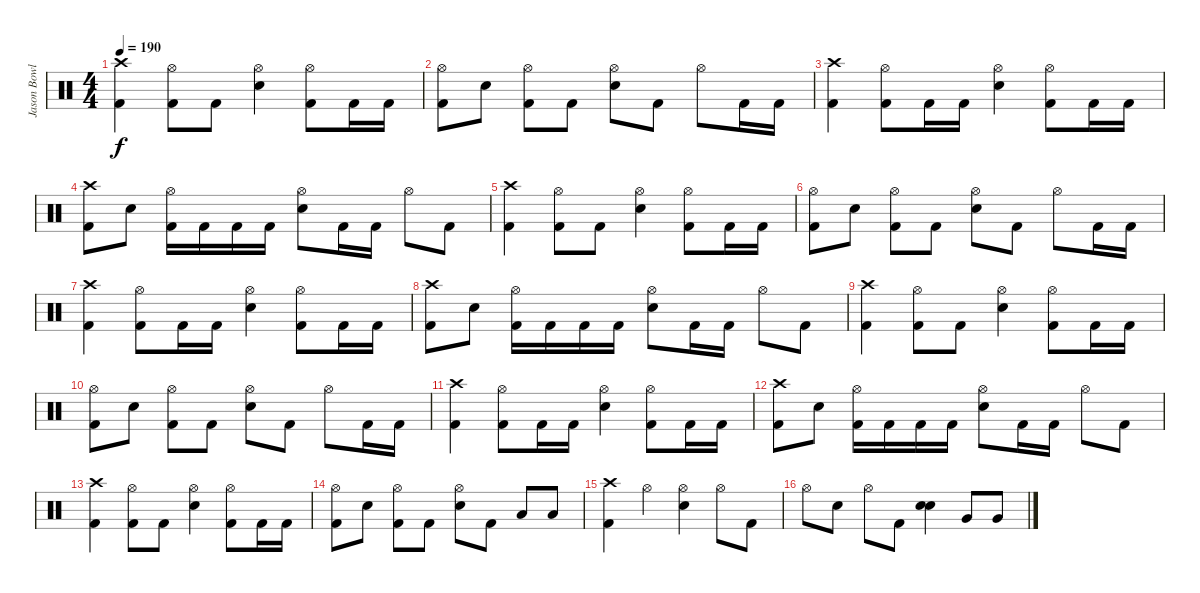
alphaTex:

\track ("Jason Bowld" "Jason Bowl") {instrument percussion}
\staff {score}
\articulation defaults
\ts (4 4)
\tempo 190
\clef neutral
\ks c
("Crash high (hit)" "Kick (hit) 2").4{dy f} ("Hi-Hat (open)" "Kick (hit) 2").8 "Kick (hit) 2".8 ("Hi-Hat (open)" "Snare (hit) 2").4 ("Hi-Hat (open)" "Kick (hit) 2").8 "Kick (hit) 2".16 "Kick (hit) 2".16 |
("Hi-Hat (open)" "Kick (hit) 2").8 "Snare (hit) 2".8 ("Hi-Hat (open)" "Kick (hit) 2").8 "Kick (hit) 2".8 ("Hi-Hat (open)" "Snare (hit) 2").8 "Kick (hit) 2".8 "Hi-Hat (open)".8 "Kick (hit) 2".16 "Kick (hit) 2".16 |
("Crash high (hit)" "Kick (hit) 2").4 ("Hi-Hat (open)" "Kick (hit) 2").8 "Kick (hit) 2".16 "Kick (hit) 2".16 ("Hi-Hat (open)" "Snare (hit) 2").4 ("Hi-Hat (open)" "Kick (hit) 2").8 "Kick (hit) 2".16 "Kick (hit) 2".16 |
("Crash high (hit)" "Kick (hit) 2").8 "Snare (hit) 2".8 ("Hi-Hat (open)" "Kick (hit) 2").16 "Kick (hit) 2".16 "Kick (hit) 2".16 "Kick (hit) 2".16 ("Hi-Hat (open)" "Snare (hit) 2").8 "Kick (hit) 2".16 "Kick (hit) 2".16 "Hi-Hat (open)".8 "Kick (hit) 2".8 |
("Crash high (hit)" "Kick (hit) 2").4 ("Hi-Hat (open)" "Kick (hit) 2").8 "Kick (hit) 2".8 ("Hi-Hat (open)" "Snare (hit) 2").4 ("Hi-Hat (open)" "Kick (hit) 2").8 "Kick (hit) 2".16 "Kick (hit) 2".16 |
("Hi-Hat (open)" "Kick (hit) 2").8 "Snare (hit) 2".8 ("Hi-Hat (open)" "Kick (hit) 2").8 "Kick (hit) 2".8 ("Hi-Hat (open)" "Snare (hit) 2").8 "Kick (hit) 2".8 "Hi-Hat (open)".8 "Kick (hit) 2".16 "Kick (hit) 2".16 |
("Crash high (hit)" "Kick (hit) 2").4 ("Hi-Hat (open)" "Kick (hit) 2").8 "Kick (hit) 2".16 "Kick (hit) 2".16 ("Hi-Hat (open)" "Snare (hit) 2").4 ("Hi-Hat (open)" "Kick (hit) 2").8 "Kick (hit) 2".16 "Kick (hit) 2".16 |
("Crash high (hit)" "Kick (hit) 2").8 "Snare (hit) 2".8 ("Hi-Hat (open)" "Kick (hit) 2").16 "Kick (hit) 2".16 "Kick (hit) 2".16 "Kick (hit) 2".16 ("Hi-Hat (open)" "Snare (hit) 2").8 "Kick (hit) 2".16 "Kick (hit) 2".16 "Hi-Hat (open)".8 "Kick (hit) 2".8 |
("Crash high (hit)" "Kick (hit) 2").4 ("Hi-Hat (open)" "Kick (hit) 2").8 "Kick (hit) 2".8 ("Hi-Hat (open)" "Snare (hit) 2").4 ("Hi-Hat (open)" "Kick (hit) 2").8 "Kick (hit) 2".16 "Kick (hit) 2".16 |
("Hi-Hat (open)" "Kick (hit) 2").8 "Snare (hit) 2".8 ("Hi-Hat (open)" "Kick (hit) 2").8 "Kick (hit) 2".8 ("Hi-Hat (open)" "Snare (hit) 2").8 "Kick (hit) 2".8 "Hi-Hat (open)".8 "Kick (hit) 2".16 "Kick (hit) 2".16 |
("Crash high (hit)" "Kick (hit) 2").4 ("Hi-Hat (open)" "Kick (hit) 2").8 "Kick (hit) 2".16 "Kick (hit) 2".16 ("Hi-Hat (open)" "Snare (hit) 2").4 ("Hi-Hat (open)" "Kick (hit) 2").8 "Kick (hit) 2".16 "Kick (hit) 2".16 |
("Crash high (hit)" "Kick (hit) 2").8 "Snare (hit) 2".8 ("Hi-Hat (open)" "Kick (hit) 2").16 "Kick (hit) 2".16 "Kick (hit) 2".16 "Kick (hit) 2".16 ("Hi-Hat (open)" "Snare (hit) 2").8 "Kick (hit) 2".16 "Kick (hit) 2".16 "Hi-Hat (open)".8 "Kick (hit) 2".8 |
("Crash high (hit)" "Kick (hit) 2").4 ("Hi-Hat (open)" "Kick (hit) 2").8 "Kick (hit) 2".8 ("Hi-Hat (open)" "Snare (hit) 2").4 ("Hi-Hat (open)" "Kick (hit) 2").8 "Kick (hit) 2".16 "Kick (hit) 2".16 |
("Hi-Hat (open)" "Kick (hit) 2").8 "Snare (hit) 2".8 ("Hi-Hat (open)" "Kick (hit) 2").8 "Kick (hit) 2".8 ("Hi-Hat (open)" "Snare (hit) 2").8 "Kick (hit) 2".8 "Low Tom (hit)".8 "Low Tom (hit)".8 |
("Crash high (hit)" "Kick (hit) 2").4 "Hi-Hat (open)".4 ("Hi-Hat (open)" "Snare (hit) 2").4 "Hi-Hat (open)".8 "Kick (hit) 2".8 |
"Hi-Hat (open)".8 "Snare (hit) 2".8 "Hi-Hat (open)".8 "Kick (hit) 2".8 ("Snare (hit) 2" "Snare (hit) 2").4 "Very Low Tom (hit)".8 "Very Low Tom (hit)".8
